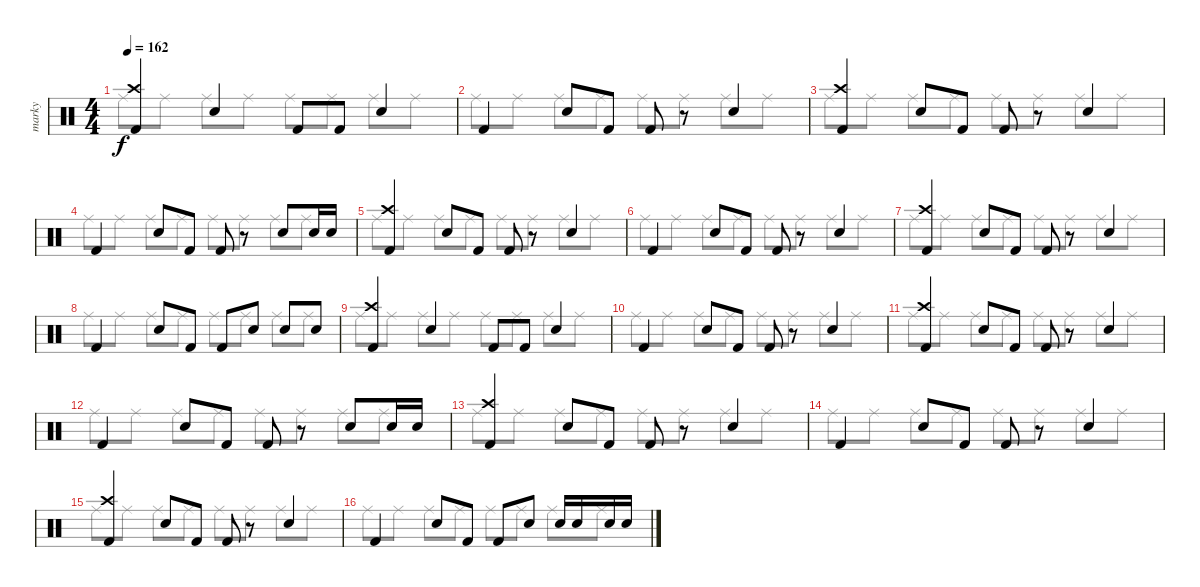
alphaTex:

\track ("marky" "marky") {instrument percussion}
\staff {score}
\articulation defaults
\voice
\ts (4 4)
\tempo 162
\clef neutral
\ks c
("Kick (hit) 2" "Crash high (hit)").4{dy f} "Electric Snare (hit)".4 "Kick (hit) 2".8 "Kick (hit) 2".8 "Electric Snare (hit)".4 |
"Kick (hit) 2".4 "Electric Snare (hit)".8 "Kick (hit) 2".8 "Kick (hit) 2".8 r.8 "Electric Snare (hit)".4 |
("Kick (hit) 2" "Crash high (hit)").4 "Electric Snare (hit)".8 "Kick (hit) 2".8 "Kick (hit) 2".8 r.8 "Electric Snare (hit)".4 |
"Kick (hit) 2".4 "Electric Snare (hit)".8 "Kick (hit) 2".8 "Kick (hit) 2".8 r.8 "Electric Snare (hit)".8 "Electric Snare (hit)".16 "Electric Snare (hit)".16 |
("Kick (hit) 2" "Crash high (hit)").4 "Electric Snare (hit)".8 "Kick (hit) 2".8 "Kick (hit) 2".8 r.8 "Electric Snare (hit)".4 |
"Kick (hit) 2".4 "Electric Snare (hit)".8 "Kick (hit) 2".8 "Kick (hit) 2".8 r.8 "Electric Snare (hit)".4 |
("Kick (hit) 2" "Crash high (hit)").4 "Electric Snare (hit)".8 "Kick (hit) 2".8 "Kick (hit) 2".8 r.8 "Electric Snare (hit)".4 |
"Kick (hit) 2".4 "Electric Snare (hit)".8 "Kick (hit) 2".8 "Kick (hit) 2".8 "Electric Snare (hit)".8 "Electric Snare (hit)".8 "Electric Snare (hit)".8 |
("Kick (hit) 2" "Crash high (hit)").4 "Electric Snare (hit)".4 "Kick (hit) 2".8 "Kick (hit) 2".8 "Electric Snare (hit)".4 |
"Kick (hit) 2".4 "Electric Snare (hit)".8 "Kick (hit) 2".8 "Kick (hit) 2".8 r.8 "Electric Snare (hit)".4 |
("Kick (hit) 2" "Crash high (hit)").4 "Electric Snare (hit)".8 "Kick (hit) 2".8 "Kick (hit) 2".8 r.8 "Electric Snare (hit)".4 |
"Kick (hit) 2".4 "Electric Snare (hit)".8 "Kick (hit) 2".8 "Kick (hit) 2".8 r.8 "Electric Snare (hit)".8 "Electric Snare (hit)".16 "Electric Snare (hit)".16 |
("Kick (hit) 2" "Crash high (hit)").4 "Electric Snare (hit)".8 "Kick (hit) 2".8 "Kick (hit) 2".8 r.8 "Electric Snare (hit)".4 |
"Kick (hit) 2".4 "Electric Snare (hit)".8 "Kick (hit) 2".8 "Kick (hit) 2".8 r.8 "Electric Snare (hit)".4 |
("Kick (hit) 2" "Crash high (hit)").4 "Electric Snare (hit)".8 "Kick (hit) 2".8 "Kick (hit) 2".8 r.8 "Electric Snare (hit)".4 |
"Kick (hit) 2".4 "Electric Snare (hit)".8 "Kick (hit) 2".8 "Kick (hit) 2".8 "Electric Snare (hit)".8 "Electric Snare (hit)".16 "Electric Snare (hit)".16 "Electric Snare (hit)".16 "Electric Snare (hit)".16
\voice
\clef neutral
\ottava regular
\simile none
\ks c "Ride (middle)".8{dy f} "Ride (middle)".8 "Ride (middle)".8 "Ride (middle)".8 "Ride (middle)".8 "Ride (middle)".8 "Ride (middle)".8 "Ride (middle)".8
|
"Ride (middle)".8 "Ride (middle)".8 "Ride (middle)".8 "Ride (middle)".8 "Ride (middle)".8 "Ride (middle)".8 "Ride (middle)".8 "Ride (middle)".8 |
"Ride (middle)".8 "Ride (middle)".8 "Ride (middle)".8 "Ride (middle)".8 "Ride (middle)".8 "Ride (middle)".8 "Ride (middle)".8 "Ride (middle)".8 |
"Ride (middle)".8 "Ride (middle)".8 "Ride (middle)".8 "Ride (middle)".8 "Ride (middle)".8 "Ride (middle)".8 "Ride (middle)".8 "Ride (middle)".8 |
"Ride (middle)".8 "Ride (middle)".8 "Ride (middle)".8 "Ride (middle)".8 "Ride (middle)".8 "Ride (middle)".8 "Ride (middle)".8 "Ride (middle)".8 |
"Ride (middle)".8 "Ride (middle)".8 "Ride (middle)".8 "Ride (middle)".8 "Ride (middle)".8 "Ride (middle)".8 "Ride (middle)".8 "Ride (middle)".8 |
"Ride (middle)".8 "Ride (middle)".8 "Ride (middle)".8 "Ride (middle)".8 "Ride (middle)".8 "Ride (middle)".8 "Ride (middle)".8 "Ride (middle)".8 |
"Ride (middle)".8 "Ride (middle)".8 "Ride (middle)".8 "Ride (middle)".8 "Ride (middle)".8 "Ride (middle)".8 "Ride (middle)".8 "Ride (middle)".8 |
"Ride (middle)".8 "Ride (middle)".8 "Ride (middle)".8 "Ride (middle)".8 "Ride (middle)".8 "Ride (middle)".8 "Ride (middle)".8 "Ride (middle)".8 |
"Ride (middle)".8 "Ride (middle)".8 "Ride (middle)".8 "Ride (middle)".8 "Ride (middle)".8 "Ride (middle)".8 "Ride (middle)".8 "Ride (middle)".8 |
"Ride (middle)".8 "Ride (middle)".8 "Ride (middle)".8 "Ride (middle)".8 "Ride (middle)".8 "Ride (middle)".8 "Ride (middle)".8 "Ride (middle)".8 |
"Ride (middle)".8 "Ride (middle)".8 "Ride (middle)".8 "Ride (middle)".8 "Ride (middle)".8 "Ride (middle)".8 "Ride (middle)".8 "Ride (middle)".8 |
"Ride (middle)".8 "Ride (middle)".8 "Ride (middle)".8 "Ride (middle)".8 "Ride (middle)".8 "Ride (middle)".8 "Ride (middle)".8 "Ride (middle)".8 |
"Ride (middle)".8 "Ride (middle)".8 "Ride (middle)".8 "Ride (middle)".8 "Ride (middle)".8 "Ride (middle)".8 "Ride (middle)".8 "Ride (middle)".8 |
"Ride (middle)".8 "Ride (middle)".8 "Ride (middle)".8 "Ride (middle)".8 "Ride (middle)".8 "Ride (middle)".8 "Ride (middle)".8 "Ride (middle)".8 |
"Ride (middle)".8 "Ride (middle)".8 "Ride (middle)".8 "Ride (middle)".8 "Ride (middle)".8 "Ride (middle)".8 "Ride (middle)".8 "Ride (middle)".8
